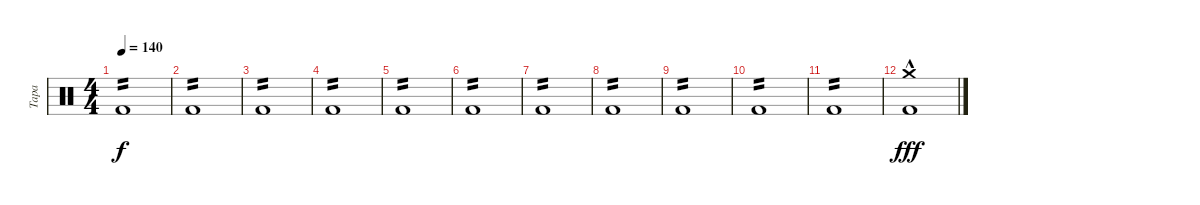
\track ("Tapa" "Tapa") {instrument percussion}
\staff {score}
\articulation defaults
\ts (4 4)
\tempo 140
\clef neutral
\ks c "Kick (hit) 2".1{tp 2 dy f}
|
"Kick (hit) 2".1{tp 2} |
"Kick (hit) 2".1{tp 2} |
"Kick (hit) 2".1{tp 2} |
"Kick (hit) 2".1{tp 2} |
"Kick (hit) 2".1{tp 2} |
"Kick (hit) 2".1{tp 2} |
"Kick (hit) 2".1{tp 2} |
"Kick (hit) 2".1{tp 2} |
"Kick (hit) 2".1{tp 2} |
"Kick (hit) 2".1{tp 2} |
("Kick (hit) 2"{hac} "Crash medium (hit)"{hac}).1{dy fff}
